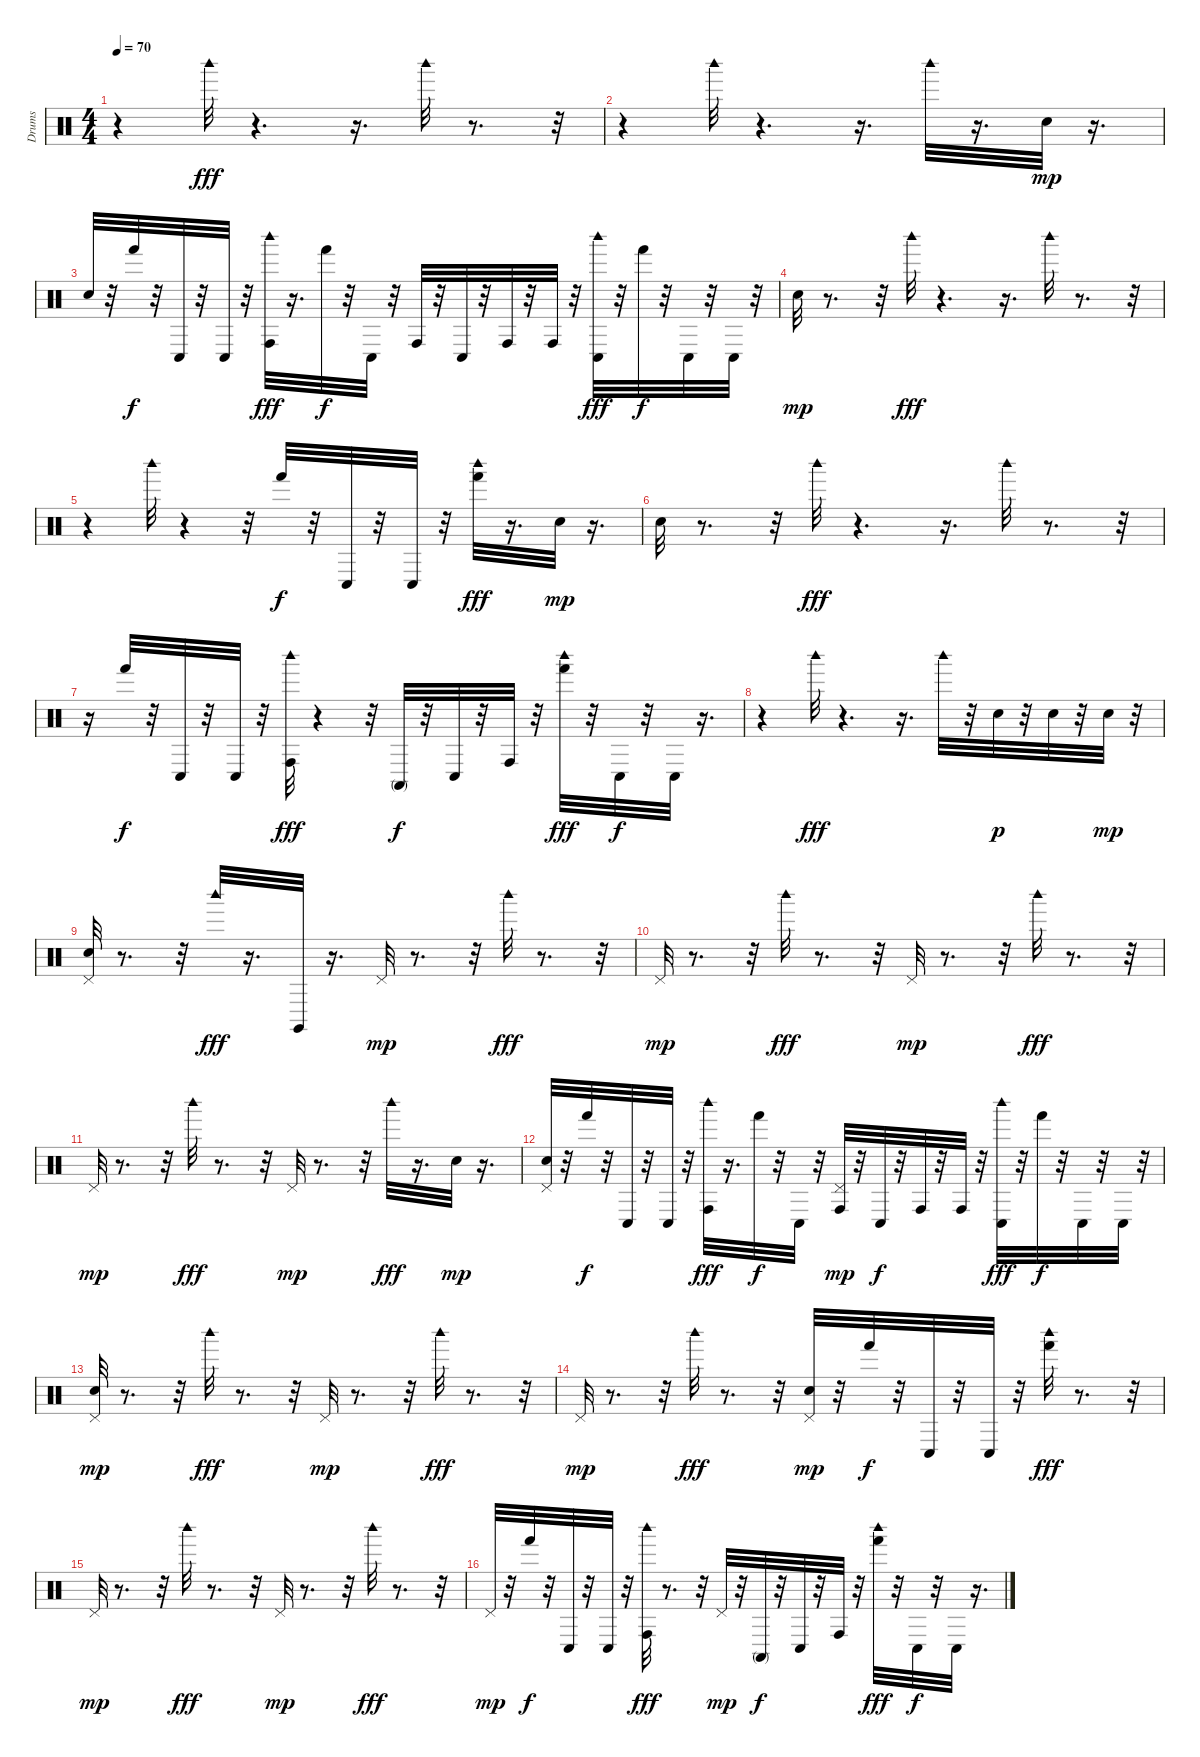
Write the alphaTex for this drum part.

\track ("Drums" "Drums") {instrument percussion}
\staff {score}
\articulation defaults
\ts (4 4)
\tempo 70
\clef neutral
\ks c
r.4{dy fff} "Woodblock high (hit)".32 r.4{d} r.16{d} "Woodblock high (hit)".32 r.8{d} r.32 |
r.4 "Woodblock high (hit)".32 r.4{d} r.16{d} "Woodblock high (hit)".32 r.16{d} "Snare (hit)".32{dy mp} r.16{d} |
"Snare (hit)".32 r.32 "Hand (hit)".32{dy f} r.32 "Conga low (hit)".32 r.32 "Conga low (hit)".32 r.32 ("Woodblock high (hit)" "Conga high (hit)").32{dy fff} r.16{d} "Hand (hit)".32{dy f} r.32 "Conga low (hit)".32 r.32 "Conga high (hit)".32 r.32 "Conga low (hit)".32 r.32 "Conga high (hit)".32 r.32 "Conga high (hit)".32 r.32 ("Woodblock high (hit)" "Conga low (hit)").32{dy fff} r.32 "Hand (hit)".32{dy f} r.32 "Conga low (hit)".32 r.32 "Conga low (hit)".32 r.32 |
"Snare (hit)".32{dy mp} r.8{d} r.32 "Woodblock high (hit)".32{dy fff} r.4{d} r.16{d} "Woodblock high (hit)".32 r.8{d} r.32 |
r.4 "Woodblock high (hit)".32 r.4 r.32 "Hand (hit)".32{dy f} r.32 "Conga low (hit)".32 r.32 "Conga low (hit)".32 r.32 ("Woodblock high (hit)" "Hand (hit)").32{dy fff} r.16{d} "Snare (hit)".32{dy mp} r.16{d} |
"Snare (hit)".32 r.8{d} r.32 "Woodblock high (hit)".32{dy fff} r.4{d} r.16{d} "Woodblock high (hit)".32 r.8{d} r.32 |
r.16 "Hand (hit)".32{dy f} r.32 "Conga low (hit)".32 r.32 "Conga low (hit)".32 r.32 ("Woodblock high (hit)" "Conga high (hit)").32{dy fff} r.4 r.32 "Conga high (mute)".32{dy f} r.32 "Conga low (hit)".32 r.32 "Conga high (hit)".32 r.32 ("Woodblock high (hit)" "Hand (hit)").32{dy fff} r.32 "Conga low (hit)".32{dy f} r.32 "Conga low (hit)".32 r.16{d} |
r.4 "Woodblock high (hit)".32{dy fff} r.4{d} r.16{d} "Woodblock high (hit)".32 r.32 "Snare (hit) 2".32{dy p} r.32 "Snare (hit) 2".32 r.32 "Snare (hit) 2".32{dy mp} r.32 |
("Snare (hit)" "Pedal Hi-Hat (hit)").32 r.8{d} r.32 "Woodblock high (hit)".32{dy fff} r.16{d} "Claves (hit)".32 r.16{d} "Pedal Hi-Hat (hit)".32{dy mp} r.8{d} r.32 "Woodblock high (hit)".32{dy fff} r.8{d} r.32 |
"Pedal Hi-Hat (hit)".32{dy mp} r.8{d} r.32 "Woodblock high (hit)".32{dy fff} r.8{d} r.32 "Pedal Hi-Hat (hit)".32{dy mp} r.8{d} r.32 "Woodblock high (hit)".32{dy fff} r.8{d} r.32 |
"Pedal Hi-Hat (hit)".32{dy mp} r.8{d} r.32 "Woodblock high (hit)".32{dy fff} r.8{d} r.32 "Pedal Hi-Hat (hit)".32{dy mp} r.8{d} r.32 "Woodblock high (hit)".32{dy fff} r.16{d} "Snare (hit)".32{dy mp} r.16{d} |
("Snare (hit)" "Pedal Hi-Hat (hit)").32 r.32 "Hand (hit)".32{dy f} r.32 "Conga low (hit)".32 r.32 "Conga low (hit)".32 r.32 ("Woodblock high (hit)" "Conga high (hit)").32{dy fff} r.16{d} "Hand (hit)".32{dy f} r.32 "Conga low (hit)".32 r.32 ("Pedal Hi-Hat (hit)" "Conga high (hit)").32{dy mp} r.32 "Conga low (hit)".32{dy f} r.32 "Conga high (hit)".32 r.32 "Conga high (hit)".32 r.32 ("Woodblock high (hit)" "Conga low (hit)").32{dy fff} r.32 "Hand (hit)".32{dy f} r.32 "Conga low (hit)".32 r.32 "Conga low (hit)".32 r.32 |
("Snare (hit)" "Pedal Hi-Hat (hit)").32{dy mp} r.8{d} r.32 "Woodblock high (hit)".32{dy fff} r.8{d} r.32 "Pedal Hi-Hat (hit)".32{dy mp} r.8{d} r.32 "Woodblock high (hit)".32{dy fff} r.8{d} r.32 |
"Pedal Hi-Hat (hit)".32{dy mp} r.8{d} r.32 "Woodblock high (hit)".32{dy fff} r.8{d} r.32 ("Snare (hit)" "Pedal Hi-Hat (hit)").32{dy mp} r.32 "Hand (hit)".32{dy f} r.32 "Conga low (hit)".32 r.32 "Conga low (hit)".32 r.32 ("Woodblock high (hit)" "Hand (hit)").32{dy fff} r.8{d} r.32 |
"Pedal Hi-Hat (hit)".32{dy mp} r.8{d} r.32 "Woodblock high (hit)".32{dy fff} r.8{d} r.32 "Pedal Hi-Hat (hit)".32{dy mp} r.8{d} r.32 "Woodblock high (hit)".32{dy fff} r.8{d} r.32 |
"Pedal Hi-Hat (hit)".32{dy mp} r.32 "Hand (hit)".32{dy f} r.32 "Conga low (hit)".32 r.32 "Conga low (hit)".32 r.32 ("Woodblock high (hit)" "Conga high (hit)").32{dy fff} r.8{d} r.32 "Pedal Hi-Hat (hit)".32{dy mp} r.32 "Conga high (mute)".32{dy f} r.32 "Conga low (hit)".32 r.32 "Conga high (hit)".32 r.32 ("Woodblock high (hit)" "Hand (hit)").32{dy fff} r.32 "Conga low (hit)".32{dy f} r.32 "Conga low (hit)".32 r.16{d}
